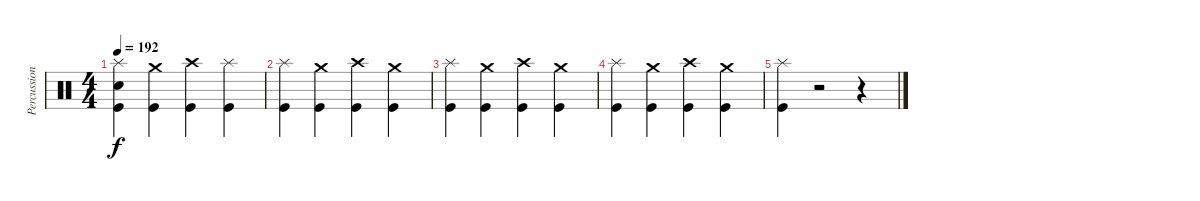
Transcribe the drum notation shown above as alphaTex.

\track ("Percussions" "Percussion") {instrument percussion}
\staff {score}
\articulation defaults
\ts (4 4)
\tempo 192
\clef neutral
\ks c
("Kick (hit)" "Electric Snare (hit)" "Splash (hit)").4{dy f} ("Kick (hit)" "Crash medium (hit)").4 ("Kick (hit)" "Crash high (hit)").4 ("Kick (hit)" "Splash (hit)").4 |
("Kick (hit)" "Splash (hit)").4 ("Kick (hit)" "Crash medium (hit)").4 ("Kick (hit)" "Crash high (hit)").4 ("Kick (hit)" "Crash medium (hit)").4 |
("Kick (hit)" "Splash (hit)").4 ("Kick (hit)" "Crash medium (hit)").4 ("Kick (hit)" "Crash high (hit)").4 ("Kick (hit)" "Crash medium (hit)").4 |
("Kick (hit)" "Splash (hit)").4 ("Kick (hit)" "Crash medium (hit)").4 ("Kick (hit)" "Crash high (hit)").4 ("Kick (hit)" "Crash medium (hit)").4 |
("Kick (hit)" "Splash (hit)").4 r.2 r.4
